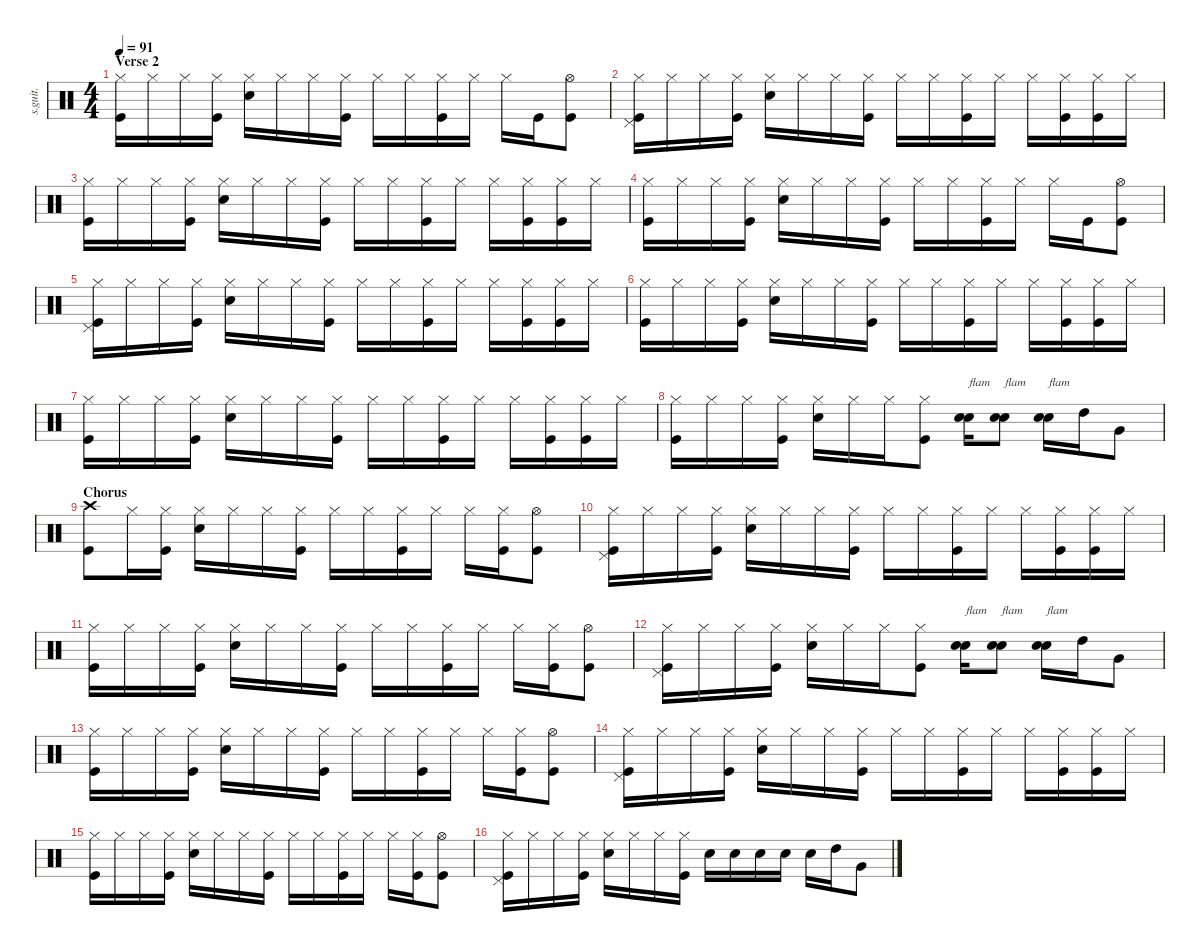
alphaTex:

\defaultSystemsLayout 4
\hideDynamics
\bracketExtendMode nobrackets
\track ("Chad" "s.guit.") {instrument percussion}
\staff {score}
\articulation defaults
\ts (4 4)
\section ("" "Verse 2")
\tempo 91
\clef neutral
\ks c
("Hi-Hat (closed)" "Kick (hit)").16{dy f} "Hi-Hat (closed)".16 "Hi-Hat (closed)".16 ("Hi-Hat (closed)" "Kick (hit)").16 ("Hi-Hat (closed)" "Snare (hit) 2").16 "Hi-Hat (closed)".16 "Hi-Hat (closed)".16 ("Hi-Hat (closed)" "Kick (hit)").16 "Hi-Hat (closed)".16 "Hi-Hat (closed)".16 ("Hi-Hat (closed)" "Kick (hit)").16 "Hi-Hat (closed)".16 "Hi-Hat (closed)".16 "Kick (hit)".16 ("Hi-Hat (open)" "Kick (hit)").8 |
("Hi-Hat (closed)" "Kick (hit)" "Pedal Hi-Hat (hit)").16 "Hi-Hat (closed)".16 "Hi-Hat (closed)".16 ("Hi-Hat (closed)" "Kick (hit)").16 ("Hi-Hat (closed)" "Snare (hit) 2").16 "Hi-Hat (closed)".16 "Hi-Hat (closed)".16 ("Hi-Hat (closed)" "Kick (hit)").16 "Hi-Hat (closed)".16 "Hi-Hat (closed)".16 ("Hi-Hat (closed)" "Kick (hit)").16 "Hi-Hat (closed)".16 "Hi-Hat (closed)".16 ("Hi-Hat (closed)" "Kick (hit)").16 ("Hi-Hat (closed)" "Kick (hit)").16 "Hi-Hat (closed)".16 |
("Hi-Hat (closed)" "Kick (hit)").16 "Hi-Hat (closed)".16 "Hi-Hat (closed)".16 ("Hi-Hat (closed)" "Kick (hit)").16 ("Hi-Hat (closed)" "Snare (hit) 2").16 "Hi-Hat (closed)".16 "Hi-Hat (closed)".16 ("Hi-Hat (closed)" "Kick (hit)").16 "Hi-Hat (closed)".16 "Hi-Hat (closed)".16 ("Hi-Hat (closed)" "Kick (hit)").16 "Hi-Hat (closed)".16 "Hi-Hat (closed)".16 ("Hi-Hat (closed)" "Kick (hit)").16 ("Hi-Hat (closed)" "Kick (hit)").16 "Hi-Hat (closed)".16 |
("Hi-Hat (closed)" "Kick (hit)").16 "Hi-Hat (closed)".16 "Hi-Hat (closed)".16 ("Hi-Hat (closed)" "Kick (hit)").16 ("Hi-Hat (closed)" "Snare (hit) 2").16 "Hi-Hat (closed)".16 "Hi-Hat (closed)".16 ("Hi-Hat (closed)" "Kick (hit)").16 "Hi-Hat (closed)".16 "Hi-Hat (closed)".16 ("Hi-Hat (closed)" "Kick (hit)").16 "Hi-Hat (closed)".16 "Hi-Hat (closed)".16 "Kick (hit)".16 ("Hi-Hat (open)" "Kick (hit)").8 |
("Hi-Hat (closed)" "Kick (hit)" "Pedal Hi-Hat (hit)").16 "Hi-Hat (closed)".16 "Hi-Hat (closed)".16 ("Hi-Hat (closed)" "Kick (hit)").16 ("Hi-Hat (closed)" "Snare (hit) 2").16 "Hi-Hat (closed)".16 "Hi-Hat (closed)".16 ("Hi-Hat (closed)" "Kick (hit)").16 "Hi-Hat (closed)".16 "Hi-Hat (closed)".16 ("Hi-Hat (closed)" "Kick (hit)").16 "Hi-Hat (closed)".16 "Hi-Hat (closed)".16 ("Hi-Hat (closed)" "Kick (hit)").16 ("Hi-Hat (closed)" "Kick (hit)").16 "Hi-Hat (closed)".16 |
("Hi-Hat (closed)" "Kick (hit)").16 "Hi-Hat (closed)".16 "Hi-Hat (closed)".16 ("Hi-Hat (closed)" "Kick (hit)").16 ("Hi-Hat (closed)" "Snare (hit) 2").16 "Hi-Hat (closed)".16 "Hi-Hat (closed)".16 ("Hi-Hat (closed)" "Kick (hit)").16 "Hi-Hat (closed)".16 "Hi-Hat (closed)".16 ("Hi-Hat (closed)" "Kick (hit)").16 "Hi-Hat (closed)".16 "Hi-Hat (closed)".16 ("Hi-Hat (closed)" "Kick (hit)").16 ("Hi-Hat (closed)" "Kick (hit)").16 "Hi-Hat (closed)".16 |
("Hi-Hat (closed)" "Kick (hit)").16 "Hi-Hat (closed)".16 "Hi-Hat (closed)".16 ("Hi-Hat (closed)" "Kick (hit)").16 ("Hi-Hat (closed)" "Snare (hit) 2").16 "Hi-Hat (closed)".16 "Hi-Hat (closed)".16 ("Hi-Hat (closed)" "Kick (hit)").16 "Hi-Hat (closed)".16 "Hi-Hat (closed)".16 ("Hi-Hat (closed)" "Kick (hit)").16 "Hi-Hat (closed)".16 "Hi-Hat (closed)".16 ("Hi-Hat (closed)" "Kick (hit)").16 ("Hi-Hat (closed)" "Kick (hit)").16 "Hi-Hat (closed)".16 |
("Hi-Hat (closed)" "Kick (hit)").16 "Hi-Hat (closed)".16 "Hi-Hat (closed)".16 ("Hi-Hat (closed)" "Kick (hit)").16 ("Hi-Hat (closed)" "Snare (hit) 2").16 "Hi-Hat (closed)".16 "Hi-Hat (closed)".16 ("Hi-Hat (closed)" "Kick (hit)").8 ("Snare (hit) 2" "Snare (hit) 2").16{txt "flam"} ("Snare (hit) 2" "Snare (hit) 2").8{txt "flam"} ("Snare (hit) 2" "Snare (hit) 2").16{txt "flam"} "High Tom (hit)".16 "Very Low Tom (hit)".8 |
\section ("" "Chorus")
("Crash high (hit)" "Kick (hit)").8 "Hi-Hat (closed)".16 ("Hi-Hat (closed)" "Kick (hit)").16 ("Hi-Hat (closed)" "Snare (hit) 2").16 "Hi-Hat (closed)".16 "Hi-Hat (closed)".16 ("Hi-Hat (closed)" "Kick (hit)").16 "Hi-Hat (closed)".16 "Hi-Hat (closed)".16 ("Hi-Hat (closed)" "Kick (hit)").16 "Hi-Hat (closed)".16 "Hi-Hat (closed)".16 ("Hi-Hat (closed)" "Kick (hit)").16 ("Hi-Hat (open)" "Kick (hit)").8 |
("Hi-Hat (closed)" "Kick (hit)" "Pedal Hi-Hat (hit)").16 "Hi-Hat (closed)".16 "Hi-Hat (closed)".16 ("Hi-Hat (closed)" "Kick (hit)").16 ("Hi-Hat (closed)" "Snare (hit) 2").16 "Hi-Hat (closed)".16 "Hi-Hat (closed)".16 ("Hi-Hat (closed)" "Kick (hit)").16 "Hi-Hat (closed)".16 "Hi-Hat (closed)".16 ("Hi-Hat (closed)" "Kick (hit)").16 "Hi-Hat (closed)".16 "Hi-Hat (closed)".16 ("Hi-Hat (closed)" "Kick (hit)").16 ("Hi-Hat (closed)" "Kick (hit)").16 "Hi-Hat (closed)".16 |
("Hi-Hat (closed)" "Kick (hit)").16 "Hi-Hat (closed)".16 "Hi-Hat (closed)".16 ("Hi-Hat (closed)" "Kick (hit)").16 ("Hi-Hat (closed)" "Snare (hit) 2").16 "Hi-Hat (closed)".16 "Hi-Hat (closed)".16 ("Hi-Hat (closed)" "Kick (hit)").16 "Hi-Hat (closed)".16 "Hi-Hat (closed)".16 ("Hi-Hat (closed)" "Kick (hit)").16 "Hi-Hat (closed)".16 "Hi-Hat (closed)".16 ("Hi-Hat (closed)" "Kick (hit)").16 ("Hi-Hat (open)" "Kick (hit)").8 |
("Hi-Hat (closed)" "Kick (hit)" "Pedal Hi-Hat (hit)").16 "Hi-Hat (closed)".16 "Hi-Hat (closed)".16 ("Hi-Hat (closed)" "Kick (hit)").16 ("Hi-Hat (closed)" "Snare (hit) 2").16 "Hi-Hat (closed)".16 "Hi-Hat (closed)".16 ("Hi-Hat (closed)" "Kick (hit)").8 ("Snare (hit) 2" "Snare (hit) 2").16{txt "flam"} ("Snare (hit) 2" "Snare (hit) 2").8{txt "flam"} ("Snare (hit) 2" "Snare (hit) 2").16{txt "flam"} "High Tom (hit)".16 "Very Low Tom (hit)".8 |
("Hi-Hat (closed)" "Kick (hit)").16 "Hi-Hat (closed)".16 "Hi-Hat (closed)".16 ("Hi-Hat (closed)" "Kick (hit)").16 ("Hi-Hat (closed)" "Snare (hit) 2").16 "Hi-Hat (closed)".16 "Hi-Hat (closed)".16 ("Hi-Hat (closed)" "Kick (hit)").16 "Hi-Hat (closed)".16 "Hi-Hat (closed)".16 ("Hi-Hat (closed)" "Kick (hit)").16 "Hi-Hat (closed)".16 "Hi-Hat (closed)".16 ("Hi-Hat (closed)" "Kick (hit)").16 ("Hi-Hat (open)" "Kick (hit)").8 |
("Hi-Hat (closed)" "Kick (hit)" "Pedal Hi-Hat (hit)").16 "Hi-Hat (closed)".16 "Hi-Hat (closed)".16 ("Hi-Hat (closed)" "Kick (hit)").16 ("Hi-Hat (closed)" "Snare (hit) 2").16 "Hi-Hat (closed)".16 "Hi-Hat (closed)".16 ("Hi-Hat (closed)" "Kick (hit)").16 "Hi-Hat (closed)".16 "Hi-Hat (closed)".16 ("Hi-Hat (closed)" "Kick (hit)").16 "Hi-Hat (closed)".16 "Hi-Hat (closed)".16 ("Hi-Hat (closed)" "Kick (hit)").16 ("Hi-Hat (closed)" "Kick (hit)").16 "Hi-Hat (closed)".16 |
("Hi-Hat (closed)" "Kick (hit)").16 "Hi-Hat (closed)".16 "Hi-Hat (closed)".16 ("Hi-Hat (closed)" "Kick (hit)").16 ("Hi-Hat (closed)" "Snare (hit) 2").16 "Hi-Hat (closed)".16 "Hi-Hat (closed)".16 ("Hi-Hat (closed)" "Kick (hit)").16 "Hi-Hat (closed)".16 "Hi-Hat (closed)".16 ("Hi-Hat (closed)" "Kick (hit)").16 "Hi-Hat (closed)".16 "Hi-Hat (closed)".16 ("Hi-Hat (closed)" "Kick (hit)").16 ("Hi-Hat (open)" "Kick (hit)").8 |
("Hi-Hat (closed)" "Kick (hit)" "Pedal Hi-Hat (hit)").16 "Hi-Hat (closed)".16 "Hi-Hat (closed)".16 ("Hi-Hat (closed)" "Kick (hit)").16 ("Hi-Hat (closed)" "Snare (hit) 2").16 "Hi-Hat (closed)".16 "Hi-Hat (closed)".16 ("Hi-Hat (closed)" "Kick (hit)").16 "Snare (hit) 2".16 "Snare (hit) 2".16 "Snare (hit) 2".16 "Snare (hit) 2".16 "Snare (hit) 2".16 "High Tom (hit)".16 "Very Low Tom (hit)".8
